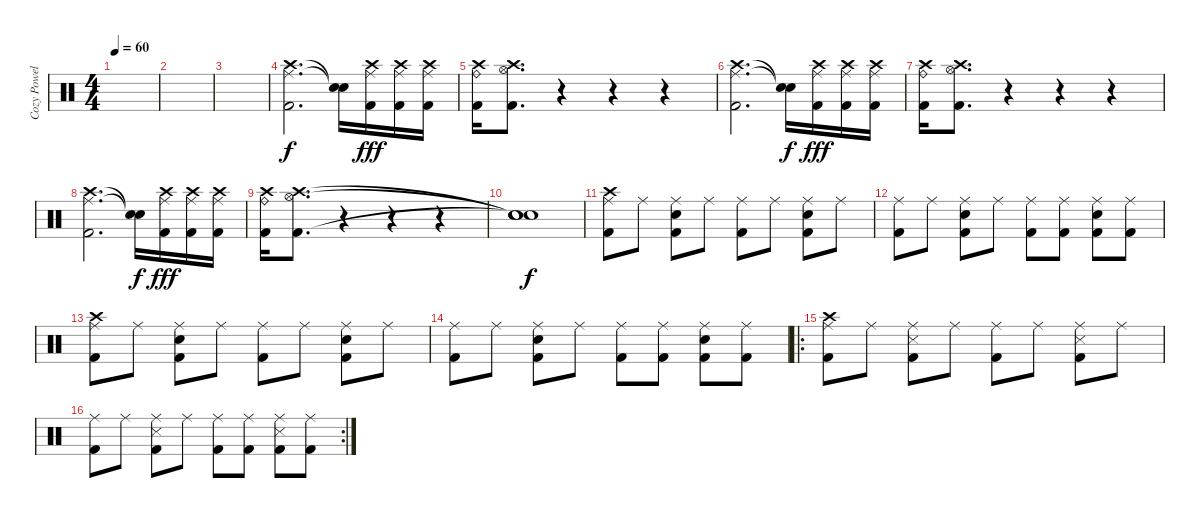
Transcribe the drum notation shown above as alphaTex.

\track ("Cozy Powell (Drums)" "Cozy Powel") {instrument percussion}
\staff {score}
\articulation defaults
\ts (4 4)
\tempo 60
\clef neutral
\ks c
|
|
|
("Ride (middle)" "Crash high (hit)" "Kick (hit) 2").2{d} ("Snare (hit)"{t} "Snare (hit)"{t}).16{dy f} ("Crash high (hit)" "Ride (middle)" "Kick (hit) 2").16{dy fff} ("Crash high (hit)" "Ride (middle)" "Kick (hit) 2").16 ("Crash high (hit)" "Ride (middle)" "Kick (hit) 2").16 |
("Ride (bell)" "Crash high (hit)" "Kick (hit) 2").16 ("Crash high (hit)" "Hi-Hat (open)" "Kick (hit) 2").8{d} r.4 r.4 r.4 |
("Ride (middle)" "Crash high (hit)" "Kick (hit) 2").2{d} ("Snare (hit)"{t} "Snare (hit)"{t}).16{dy f} ("Crash high (hit)" "Ride (middle)" "Kick (hit) 2").16{dy fff} ("Crash high (hit)" "Ride (middle)" "Kick (hit) 2").16 ("Crash high (hit)" "Ride (middle)" "Kick (hit) 2").16 |
("Ride (bell)" "Crash high (hit)" "Kick (hit) 2").16 ("Crash high (hit)" "Hi-Hat (open)" "Kick (hit) 2").8{d} r.4 r.4 r.4 |
("Ride (middle)" "Crash high (hit)" "Kick (hit) 2").2{d} ("Snare (hit)"{t} "Snare (hit)"{t}).16{dy f} ("Crash high (hit)" "Ride (middle)" "Kick (hit) 2").16{dy fff} ("Crash high (hit)" "Ride (middle)" "Kick (hit) 2").16 ("Crash high (hit)" "Ride (middle)" "Kick (hit) 2").16 |
("Ride (bell)" "Crash high (hit)" "Kick (hit) 2").16 ("Crash high (hit)" "Hi-Hat (open)" "Kick (hit) 2").8{d} r.4 r.4 r.4 |
("Snare (hit)"{t} "Snare (hit)"{t} "Snare (hit)"{t}).1{dy f} |
("Ride (middle)" "Kick (hit) 2" "Crash high (hit)").8 "Ride (middle)".8 ("Ride (middle)" "Snare (hit) 2" "Kick (hit) 2").8 "Ride (middle)".8 ("Ride (middle)" "Kick (hit) 2").8 "Ride (middle)".8 ("Ride (middle)" "Snare (hit) 2" "Kick (hit) 2").8 "Ride (middle)".8 |
("Ride (middle)" "Kick (hit) 2").8 "Ride (middle)".8 ("Ride (middle)" "Snare (hit) 2" "Kick (hit) 2").8 "Ride (middle)".8 ("Ride (middle)" "Kick (hit) 2").8 ("Ride (middle)" "Kick (hit) 2").8 ("Ride (middle)" "Snare (hit) 2" "Kick (hit) 2").8 ("Ride (middle)" "Kick (hit) 2").8 |
("Ride (middle)" "Kick (hit) 2" "Crash high (hit)").8 "Ride (middle)".8 ("Ride (middle)" "Snare (hit) 2" "Kick (hit) 2").8 "Ride (middle)".8 ("Ride (middle)" "Kick (hit) 2").8 "Ride (middle)".8 ("Ride (middle)" "Snare (hit) 2" "Kick (hit) 2").8 "Ride (middle)".8 |
("Ride (middle)" "Kick (hit) 2").8 "Ride (middle)".8 ("Ride (middle)" "Snare (hit) 2" "Kick (hit) 2").8 "Ride (middle)".8 ("Ride (middle)" "Kick (hit) 2").8 ("Ride (middle)" "Kick (hit) 2").8 ("Ride (middle)" "Snare (hit) 2" "Kick (hit) 2").8 ("Ride (middle)" "Kick (hit) 2").8 |
\ro
("Ride (middle)" "Kick (hit) 2" "Crash high (hit)").8 "Ride (middle)".8 ("Ride (middle)" "Snare (side stick) 3" "Kick (hit) 2").8 "Ride (middle)".8 ("Ride (middle)" "Kick (hit) 2").8 "Ride (middle)".8 ("Ride (middle)" "Snare (side stick) 3" "Kick (hit) 2").8 "Ride (middle)".8 |
\rc 2
("Ride (middle)" "Kick (hit) 2").8 "Ride (middle)".8 ("Ride (middle)" "Snare (side stick) 3" "Kick (hit) 2").8 "Ride (middle)".8 ("Ride (middle)" "Kick (hit) 2").8 ("Ride (middle)" "Kick (hit) 2").8 ("Ride (middle)" "Snare (side stick) 3" "Kick (hit) 2").8 ("Ride (middle)" "Kick (hit) 2").8
